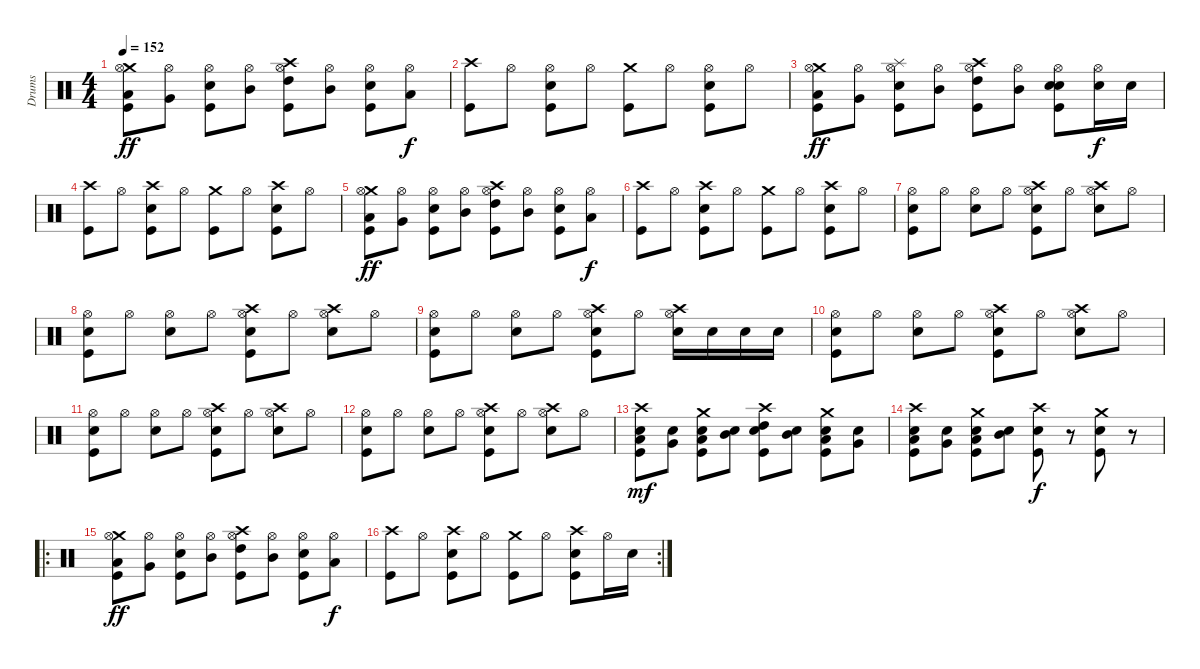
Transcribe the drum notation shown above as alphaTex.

\track ("Drums" "Drums") {instrument percussion}
\staff {score}
\articulation defaults
\ts (4 4)
\tempo 152
\clef neutral
\ks c
("Low Floor Tom (hit)" "Crash medium (hit)" "Kick (hit)" "Hi-Hat (open)").8{dy ff} ("Very Low Tom (hit)" "Hi-Hat (open)").8 ("Electric Snare (hit)" "Kick (hit)" "Hi-Hat (open)").8 ("Mid Tom (hit)" "Hi-Hat (open)").8 ("High Tom (hit)" "Crash high (hit)" "Kick (hit)" "Hi-Hat (open)").8 ("Mid Tom (hit)" "Hi-Hat (open)").8 ("Electric Snare (hit)" "Kick (hit)" "Hi-Hat (open)").8 ("Low Tom (hit)" "Hi-Hat (open)").8{dy f} |
("Crash high (hit)" "Kick (hit)").8 "Hi-Hat (open)".8 ("Hi-Hat (open)" "Electric Snare (hit)" "Kick (hit)").8 "Hi-Hat (open)".8 ("Crash medium (hit)" "Kick (hit)").8 "Hi-Hat (open)".8 ("Hi-Hat (open)" "Electric Snare (hit)" "Kick (hit)").8 "Hi-Hat (open)".8 |
("Low Floor Tom (hit)" "Crash medium (hit)" "Kick (hit)" "Hi-Hat (open)").8{dy ff} ("Very Low Tom (hit)" "Hi-Hat (open)").8 ("Electric Snare (hit)" "Splash (hit)" "Kick (hit)" "Hi-Hat (open)").8 ("Mid Tom (hit)" "Hi-Hat (open)").8 ("High Tom (hit)" "Crash high (hit)" "Kick (hit)" "Hi-Hat (open)").8 ("Mid Tom (hit)" "Hi-Hat (open)").8 ("Electric Snare (hit)" "Snare (hit)" "Kick (hit)" "Hi-Hat (open)").8 ("Electric Snare (hit)" "Hi-Hat (open)").16{dy f} "Electric Snare (hit)".16 |
("Crash high (hit)" "Kick (hit)").8 "Hi-Hat (open)".8 ("Crash high (hit)" "Electric Snare (hit)" "Kick (hit)").8 "Hi-Hat (open)".8 ("Crash medium (hit)" "Kick (hit)").8 "Hi-Hat (open)".8 ("Crash high (hit)" "Electric Snare (hit)" "Kick (hit)").8 "Hi-Hat (open)".8 |
("Low Floor Tom (hit)" "Crash medium (hit)" "Kick (hit)" "Hi-Hat (open)").8{dy ff} ("Very Low Tom (hit)" "Hi-Hat (open)").8 ("Electric Snare (hit)" "Kick (hit)" "Hi-Hat (open)").8 ("Mid Tom (hit)" "Hi-Hat (open)").8 ("High Tom (hit)" "Crash high (hit)" "Kick (hit)" "Hi-Hat (open)").8 ("Mid Tom (hit)" "Hi-Hat (open)").8 ("Electric Snare (hit)" "Kick (hit)" "Hi-Hat (open)").8 ("Low Tom (hit)" "Hi-Hat (open)").8{dy f} |
("Crash high (hit)" "Kick (hit)").8 "Hi-Hat (open)".8 ("Crash high (hit)" "Electric Snare (hit)" "Kick (hit)").8 "Hi-Hat (open)".8 ("Crash medium (hit)" "Kick (hit)").8 "Hi-Hat (open)".8 ("Crash high (hit)" "Electric Snare (hit)" "Kick (hit)").8 "Hi-Hat (open)".8 |
("Hi-Hat (open)" "Electric Snare (hit)" "Kick (hit)").8 "Hi-Hat (open)".8 ("Hi-Hat (open)" "Electric Snare (hit)").8 "Hi-Hat (open)".8 ("Hi-Hat (open)" "Electric Snare (hit)" "Crash high (hit)" "Kick (hit)").8 "Hi-Hat (open)".8 ("Hi-Hat (open)" "Electric Snare (hit)" "Crash high (hit)").8 "Hi-Hat (open)".8 |
("Hi-Hat (open)" "Electric Snare (hit)" "Kick (hit)").8 "Hi-Hat (open)".8 ("Hi-Hat (open)" "Electric Snare (hit)").8 "Hi-Hat (open)".8 ("Hi-Hat (open)" "Electric Snare (hit)" "Crash high (hit)" "Kick (hit)").8 "Hi-Hat (open)".8 ("Hi-Hat (open)" "Electric Snare (hit)" "Crash high (hit)").8 "Hi-Hat (open)".8 |
("Hi-Hat (open)" "Electric Snare (hit)" "Kick (hit)").8 "Hi-Hat (open)".8 ("Hi-Hat (open)" "Electric Snare (hit)").8 "Hi-Hat (open)".8 ("Hi-Hat (open)" "Electric Snare (hit)" "Crash high (hit)" "Kick (hit)").8 "Hi-Hat (open)".8 ("Hi-Hat (open)" "Electric Snare (hit)" "Crash high (hit)").16 "Electric Snare (hit)".16 "Electric Snare (hit)".16 "Electric Snare (hit)".16 |
("Hi-Hat (open)" "Electric Snare (hit)" "Kick (hit)").8 "Hi-Hat (open)".8 ("Hi-Hat (open)" "Electric Snare (hit)").8 "Hi-Hat (open)".8 ("Hi-Hat (open)" "Electric Snare (hit)" "Crash high (hit)" "Kick (hit)").8 "Hi-Hat (open)".8 ("Hi-Hat (open)" "Electric Snare (hit)" "Crash high (hit)").8 "Hi-Hat (open)".8 |
("Hi-Hat (open)" "Electric Snare (hit)" "Kick (hit)").8 "Hi-Hat (open)".8 ("Hi-Hat (open)" "Electric Snare (hit)").8 "Hi-Hat (open)".8 ("Hi-Hat (open)" "Electric Snare (hit)" "Crash high (hit)" "Kick (hit)").8 "Hi-Hat (open)".8 ("Hi-Hat (open)" "Electric Snare (hit)" "Crash high (hit)").8 "Hi-Hat (open)".8 |
("Hi-Hat (open)" "Electric Snare (hit)" "Kick (hit)").8 "Hi-Hat (open)".8 ("Hi-Hat (open)" "Electric Snare (hit)").8 "Hi-Hat (open)".8 ("Hi-Hat (open)" "Electric Snare (hit)" "Crash high (hit)" "Kick (hit)").8 "Hi-Hat (open)".8 ("Hi-Hat (open)" "Electric Snare (hit)" "Crash high (hit)").8 "Hi-Hat (open)".8 |
("Electric Snare (hit)" "Low Floor Tom (hit)" "Crash high (hit)" "Kick (hit)").8{dy mf} ("Electric Snare (hit)" "Very Low Tom (hit)").8 ("Electric Snare (hit)" "Low Tom (hit)" "Crash medium (hit)" "Kick (hit)").8 ("Electric Snare (hit)" "Mid Tom (hit)").8 ("Electric Snare (hit)" "High Tom (hit)" "Crash high (hit)" "Kick (hit)").8 ("Electric Snare (hit)" "Mid Tom (hit)").8 ("Electric Snare (hit)" "Low Tom (hit)" "Crash medium (hit)" "Kick (hit)").8 ("Electric Snare (hit)" "Very Low Tom (hit)").8 |
("Electric Snare (hit)" "Low Floor Tom (hit)" "Crash high (hit)" "Kick (hit)").8 ("Electric Snare (hit)" "Very Low Tom (hit)").8 ("Electric Snare (hit)" "Low Tom (hit)" "Crash medium (hit)" "Kick (hit)").8 ("Electric Snare (hit)" "Mid Tom (hit)").8 ("Electric Snare (hit)" "Crash high (hit)" "Kick (hit)").8{dy f} r.8 ("Electric Snare (hit)" "Crash medium (hit)" "Kick (hit)").8 r.8 |
\ro
("Low Floor Tom (hit)" "Crash medium (hit)" "Kick (hit)" "Hi-Hat (open)").8{dy ff} ("Very Low Tom (hit)" "Hi-Hat (open)").8 ("Electric Snare (hit)" "Kick (hit)" "Hi-Hat (open)").8 ("Mid Tom (hit)" "Hi-Hat (open)").8 ("High Tom (hit)" "Crash high (hit)" "Kick (hit)" "Hi-Hat (open)").8 ("Mid Tom (hit)" "Hi-Hat (open)").8 ("Electric Snare (hit)" "Kick (hit)" "Hi-Hat (open)").8 ("Low Tom (hit)" "Hi-Hat (open)").8{dy f} |
\rc 2
("Crash high (hit)" "Kick (hit)").8 "Hi-Hat (open)".8 ("Crash high (hit)" "Electric Snare (hit)" "Kick (hit)").8 "Hi-Hat (open)".8 ("Crash medium (hit)" "Kick (hit)").8 "Hi-Hat (open)".8 ("Crash high (hit)" "Electric Snare (hit)" "Kick (hit)").8 "Hi-Hat (open)".16 "Electric Snare (hit)".16
